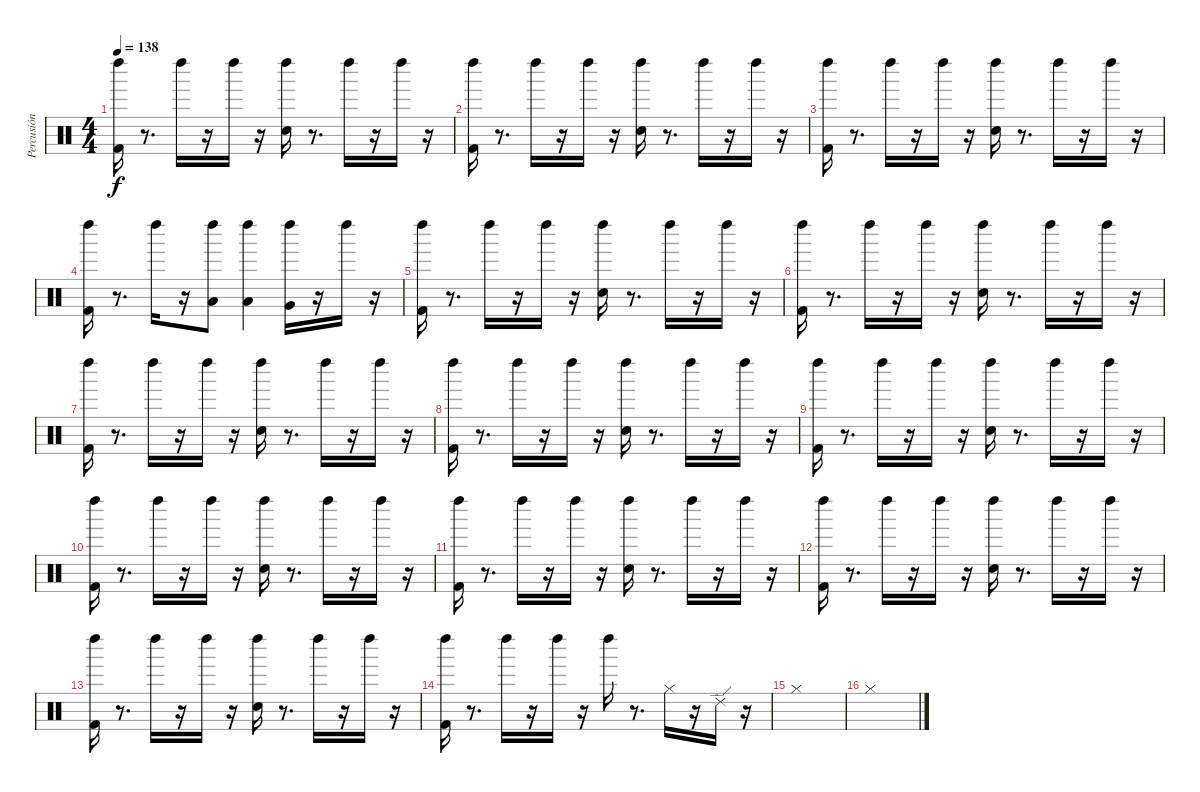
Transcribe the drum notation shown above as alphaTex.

\track ("Percusión" "Percusión") {instrument percussion}
\staff {score}
\articulation defaults
\ts (4 4)
\tempo 138
\clef neutral
\ks c
("Kick (hit) 2" "Left Maraca (hit)").16{dy f} r.8{d} "Left Maraca (hit)".16 r.16 "Left Maraca (hit)".16 r.16 ("Left Maraca (hit)" "Electric Snare (hit)").16 r.8{d} "Left Maraca (hit)".16 r.16 "Left Maraca (hit)".16 r.16 |
("Kick (hit) 2" "Left Maraca (hit)").16 r.8{d} "Left Maraca (hit)".16 r.16 "Left Maraca (hit)".16 r.16 ("Left Maraca (hit)" "Electric Snare (hit)").16 r.8{d} "Left Maraca (hit)".16 r.16 "Left Maraca (hit)".16 r.16 |
("Kick (hit) 2" "Left Maraca (hit)").16 r.8{d} "Left Maraca (hit)".16 r.16 "Left Maraca (hit)".16 r.16 ("Left Maraca (hit)" "Electric Snare (hit)").16 r.8{d} "Left Maraca (hit)".16 r.16 "Left Maraca (hit)".16 r.16 |
("Kick (hit) 2" "Left Maraca (hit)").16 r.8{d} "Left Maraca (hit)".16 r.16 ("Left Maraca (hit)" "Low Tom (hit)").8 ("Left Maraca (hit)" "Low Tom (hit)").4 ("Left Maraca (hit)" "Very Low Tom (hit)").16 r.16 "Left Maraca (hit)".16 r.16 |
("Kick (hit) 2" "Left Maraca (hit)").16 r.8{d} "Left Maraca (hit)".16 r.16 "Left Maraca (hit)".16 r.16 ("Left Maraca (hit)" "Electric Snare (hit)").16 r.8{d} "Left Maraca (hit)".16 r.16 "Left Maraca (hit)".16 r.16 |
("Kick (hit) 2" "Left Maraca (hit)").16 r.8{d} "Left Maraca (hit)".16 r.16 "Left Maraca (hit)".16 r.16 ("Left Maraca (hit)" "Electric Snare (hit)").16 r.8{d} "Left Maraca (hit)".16 r.16 "Left Maraca (hit)".16 r.16 |
("Kick (hit) 2" "Left Maraca (hit)").16 r.8{d} "Left Maraca (hit)".16 r.16 "Left Maraca (hit)".16 r.16 ("Left Maraca (hit)" "Electric Snare (hit)").16 r.8{d} "Left Maraca (hit)".16 r.16 "Left Maraca (hit)".16 r.16 |
("Kick (hit) 2" "Left Maraca (hit)").16 r.8{d} "Left Maraca (hit)".16 r.16 "Left Maraca (hit)".16 r.16 ("Left Maraca (hit)" "Electric Snare (hit)").16 r.8{d} "Left Maraca (hit)".16 r.16 "Left Maraca (hit)".16 r.16 |
("Kick (hit) 2" "Left Maraca (hit)").16 r.8{d} "Left Maraca (hit)".16 r.16 "Left Maraca (hit)".16 r.16 ("Left Maraca (hit)" "Electric Snare (hit)").16 r.8{d} "Left Maraca (hit)".16 r.16 "Left Maraca (hit)".16 r.16 |
("Kick (hit) 2" "Left Maraca (hit)").16 r.8{d} "Left Maraca (hit)".16 r.16 "Left Maraca (hit)".16 r.16 ("Left Maraca (hit)" "Electric Snare (hit)").16 r.8{d} "Left Maraca (hit)".16 r.16 "Left Maraca (hit)".16 r.16 |
("Kick (hit) 2" "Left Maraca (hit)").16 r.8{d} "Left Maraca (hit)".16 r.16 "Left Maraca (hit)".16 r.16 ("Left Maraca (hit)" "Electric Snare (hit)").16 r.8{d} "Left Maraca (hit)".16 r.16 "Left Maraca (hit)".16 r.16 |
("Kick (hit) 2" "Left Maraca (hit)").16 r.8{d} "Left Maraca (hit)".16 r.16 "Left Maraca (hit)".16 r.16 ("Left Maraca (hit)" "Electric Snare (hit)").16 r.8{d} "Left Maraca (hit)".16 r.16 "Left Maraca (hit)".16 r.16 |
("Kick (hit) 2" "Left Maraca (hit)").16 r.8{d} "Left Maraca (hit)".16 r.16 "Left Maraca (hit)".16 r.16 ("Left Maraca (hit)" "Electric Snare (hit)").16 r.8{d} "Left Maraca (hit)".16 r.16 "Left Maraca (hit)".16 r.16 |
("Kick (hit) 2" "Left Maraca (hit)").16 r.8{d} "Left Maraca (hit)".16 r.16 "Left Maraca (hit)".16 r.16 "Left Maraca (hit)".16 r.8{d} "Hi-Hat (closed)".16 r.16 "Ride (edge) 2".16 r.16 |
"Hi-Hat (closed)".1 |
"Hi-Hat (closed)".1
